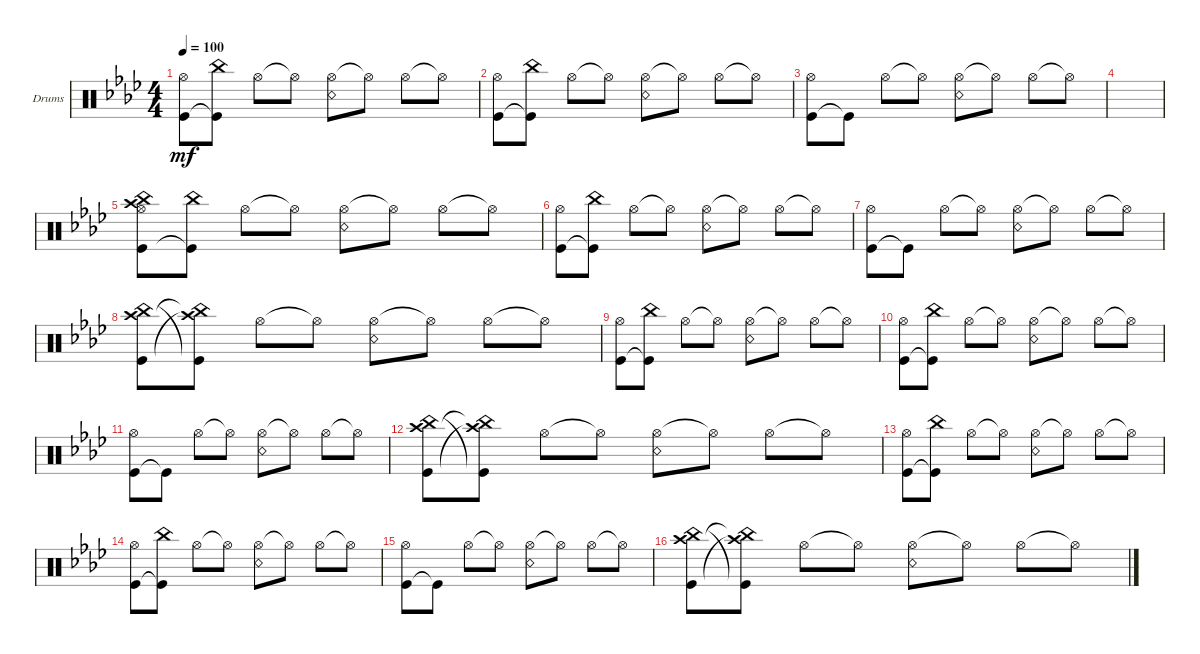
\defaultSystemsLayout 4
\bracketExtendMode groupsimilarinstruments
\firstSystemTrackNameOrientation horizontal
\otherSystemsTrackNameOrientation horizontal
\track ("Drumkit" "Drums") {multiBarRest instrument percussion}
\staff {score}
\articulation defaults
\ts (4 4)
\tempo 100
\clef neutral
\ks fminor
("Kick (hit)" "Hi-Hat (open)").8{dy mf} ("Kick (hit)"{t} "China (hit)").8 "Hi-Hat (open)".8 "Hi-Hat (open)"{t}.8 ("Hi-Hat (open)" "Snare (rim shot)").8 "Hi-Hat (open)"{t}.8 "Hi-Hat (open)".8 "Hi-Hat (open)"{t}.8 |
("Kick (hit)" "Hi-Hat (open)").8 ("Kick (hit)"{t} "China (hit)").8 "Hi-Hat (open)".8 "Hi-Hat (open)"{t}.8 ("Hi-Hat (open)" "Snare (rim shot)").8 "Hi-Hat (open)"{t}.8 "Hi-Hat (open)".8 "Hi-Hat (open)"{t}.8 |
("Kick (hit)" "Hi-Hat (open)").8 "Kick (hit)"{t}.8 "Hi-Hat (open)".8 "Hi-Hat (open)"{t}.8 ("Hi-Hat (open)" "Snare (rim shot)").8 "Hi-Hat (open)"{t}.8 "Hi-Hat (open)".8 "Hi-Hat (open)"{t}.8 |
|
("Kick (hit)" "Hi-Hat (open)" "Crash high (hit)" "China (hit)").8 ("Kick (hit)"{t} "China (hit)").8 "Hi-Hat (open)".8 "Hi-Hat (open)"{t}.8 ("Hi-Hat (open)" "Snare (rim shot)").8 "Hi-Hat (open)"{t}.8 "Hi-Hat (open)".8 "Hi-Hat (open)"{t}.8 |
("Kick (hit)" "Hi-Hat (open)").8 ("Kick (hit)"{t} "China (hit)").8 "Hi-Hat (open)".8 "Hi-Hat (open)"{t}.8 ("Hi-Hat (open)" "Snare (rim shot)").8 "Hi-Hat (open)"{t}.8 "Hi-Hat (open)".8 "Hi-Hat (open)"{t}.8 |
("Kick (hit)" "Hi-Hat (open)").8 "Kick (hit)"{t}.8 "Hi-Hat (open)".8 "Hi-Hat (open)"{t}.8 ("Hi-Hat (open)" "Snare (rim shot)").8 "Hi-Hat (open)"{t}.8 "Hi-Hat (open)".8 "Hi-Hat (open)"{t}.8 |
("China (hit)" "Crash high (hit)" "Kick (hit)").8 ("Kick (hit)"{t} "China (hit)"{t} "Crash high (hit)"{t}).8 "Hi-Hat (open)".8 "Hi-Hat (open)"{t}.8 ("Hi-Hat (open)" "Snare (rim shot)").8 "Hi-Hat (open)"{t}.8 "Hi-Hat (open)".8 "Hi-Hat (open)"{t}.8 |
("Kick (hit)" "Hi-Hat (open)").8 ("Kick (hit)"{t} "China (hit)").8 "Hi-Hat (open)".8 "Hi-Hat (open)"{t}.8 ("Hi-Hat (open)" "Snare (rim shot)").8 "Hi-Hat (open)"{t}.8 "Hi-Hat (open)".8 "Hi-Hat (open)"{t}.8 |
("Kick (hit)" "Hi-Hat (open)").8 ("Kick (hit)"{t} "China (hit)").8 "Hi-Hat (open)".8 "Hi-Hat (open)"{t}.8 ("Hi-Hat (open)" "Snare (rim shot)").8 "Hi-Hat (open)"{t}.8 "Hi-Hat (open)".8 "Hi-Hat (open)"{t}.8 |
("Kick (hit)" "Hi-Hat (open)").8 "Kick (hit)"{t}.8 "Hi-Hat (open)".8 "Hi-Hat (open)"{t}.8 ("Hi-Hat (open)" "Snare (rim shot)").8 "Hi-Hat (open)"{t}.8 "Hi-Hat (open)".8 "Hi-Hat (open)"{t}.8 |
("China (hit)" "Crash high (hit)" "Kick (hit)").8 ("Kick (hit)"{t} "China (hit)"{t} "Crash high (hit)"{t}).8 "Hi-Hat (open)".8 "Hi-Hat (open)"{t}.8 ("Hi-Hat (open)" "Snare (rim shot)").8 "Hi-Hat (open)"{t}.8 "Hi-Hat (open)".8 "Hi-Hat (open)"{t}.8 |
("Kick (hit)" "Hi-Hat (open)").8 ("Kick (hit)"{t} "China (hit)").8 "Hi-Hat (open)".8 "Hi-Hat (open)"{t}.8 ("Hi-Hat (open)" "Snare (rim shot)").8 "Hi-Hat (open)"{t}.8 "Hi-Hat (open)".8 "Hi-Hat (open)"{t}.8 |
("Kick (hit)" "Hi-Hat (open)").8 ("Kick (hit)"{t} "China (hit)").8 "Hi-Hat (open)".8 "Hi-Hat (open)"{t}.8 ("Hi-Hat (open)" "Snare (rim shot)").8 "Hi-Hat (open)"{t}.8 "Hi-Hat (open)".8 "Hi-Hat (open)"{t}.8 |
("Kick (hit)" "Hi-Hat (open)").8 "Kick (hit)"{t}.8 "Hi-Hat (open)".8 "Hi-Hat (open)"{t}.8 ("Hi-Hat (open)" "Snare (rim shot)").8 "Hi-Hat (open)"{t}.8 "Hi-Hat (open)".8 "Hi-Hat (open)"{t}.8 |
("China (hit)" "Crash high (hit)" "Kick (hit)").8 ("Kick (hit)"{t} "China (hit)"{t} "Crash high (hit)"{t}).8 "Hi-Hat (open)".8 "Hi-Hat (open)"{t}.8 ("Hi-Hat (open)" "Snare (rim shot)").8 "Hi-Hat (open)"{t}.8 "Hi-Hat (open)".8 "Hi-Hat (open)"{t}.8
